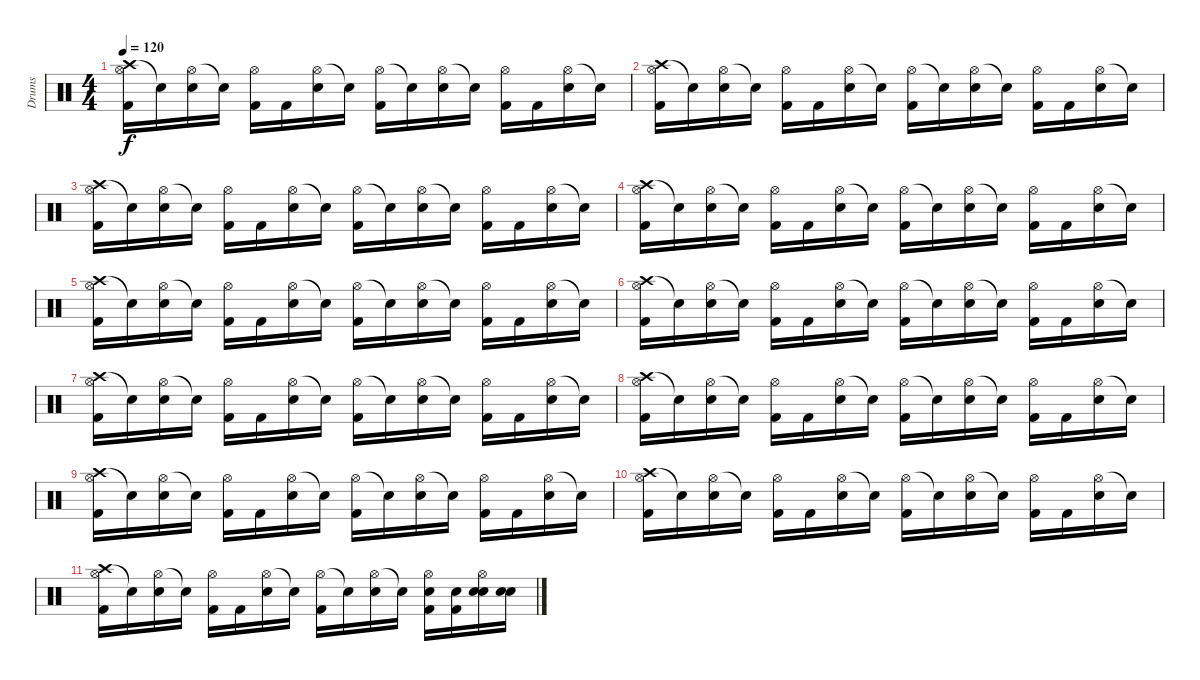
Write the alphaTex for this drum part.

\track ("Drums" "Drums") {instrument percussion}
\staff {score}
\articulation defaults
\ts (4 4)
\tempo 120
\clef neutral
\ks c
("Crash high (hit)" "Hi-Hat (open)" "Kick (hit) 2").16{dy f} "Snare (hit)"{t}.16 ("Hi-Hat (open)" "Electric Snare (hit)").16 "Snare (hit)"{t}.16 ("Hi-Hat (open)" "Kick (hit) 2").16 "Kick (hit) 2".16 ("Hi-Hat (open)" "Electric Snare (hit)").16 "Snare (hit)"{t}.16 ("Hi-Hat (open)" "Kick (hit) 2").16 "Snare (hit)"{t}.16 ("Hi-Hat (open)" "Electric Snare (hit)").16 "Snare (hit)"{t}.16 ("Hi-Hat (open)" "Kick (hit) 2").16 "Kick (hit) 2".16 ("Hi-Hat (open)" "Electric Snare (hit)").16 "Snare (hit)"{t}.16 |
("Crash high (hit)" "Hi-Hat (open)" "Kick (hit) 2").16 "Snare (hit)"{t}.16 ("Hi-Hat (open)" "Electric Snare (hit)").16 "Snare (hit)"{t}.16 ("Hi-Hat (open)" "Kick (hit) 2").16 "Kick (hit) 2".16 ("Hi-Hat (open)" "Electric Snare (hit)").16 "Snare (hit)"{t}.16 ("Hi-Hat (open)" "Kick (hit) 2").16 "Snare (hit)"{t}.16 ("Hi-Hat (open)" "Electric Snare (hit)").16 "Snare (hit)"{t}.16 ("Hi-Hat (open)" "Kick (hit) 2").16 "Kick (hit) 2".16 ("Hi-Hat (open)" "Electric Snare (hit)").16 "Snare (hit)"{t}.16 |
("Crash high (hit)" "Hi-Hat (open)" "Kick (hit) 2").16 "Snare (hit)"{t}.16 ("Hi-Hat (open)" "Electric Snare (hit)").16 "Snare (hit)"{t}.16 ("Hi-Hat (open)" "Kick (hit) 2").16 "Kick (hit) 2".16 ("Hi-Hat (open)" "Electric Snare (hit)").16 "Snare (hit)"{t}.16 ("Hi-Hat (open)" "Kick (hit) 2").16 "Snare (hit)"{t}.16 ("Hi-Hat (open)" "Electric Snare (hit)").16 "Snare (hit)"{t}.16 ("Hi-Hat (open)" "Kick (hit) 2").16 "Kick (hit) 2".16 ("Hi-Hat (open)" "Electric Snare (hit)").16 "Snare (hit)"{t}.16 |
("Crash high (hit)" "Hi-Hat (open)" "Kick (hit) 2").16 "Snare (hit)"{t}.16 ("Hi-Hat (open)" "Electric Snare (hit)").16 "Snare (hit)"{t}.16 ("Hi-Hat (open)" "Kick (hit) 2").16 "Kick (hit) 2".16 ("Hi-Hat (open)" "Electric Snare (hit)").16 "Snare (hit)"{t}.16 ("Hi-Hat (open)" "Kick (hit) 2").16 "Snare (hit)"{t}.16 ("Hi-Hat (open)" "Electric Snare (hit)").16 "Snare (hit)"{t}.16 ("Hi-Hat (open)" "Kick (hit) 2").16 "Kick (hit) 2".16 ("Hi-Hat (open)" "Electric Snare (hit)").16 "Snare (hit)"{t}.16 |
("Crash high (hit)" "Hi-Hat (open)" "Kick (hit) 2").16 "Snare (hit)"{t}.16 ("Hi-Hat (open)" "Electric Snare (hit)").16 "Snare (hit)"{t}.16 ("Hi-Hat (open)" "Kick (hit) 2").16 "Kick (hit) 2".16 ("Hi-Hat (open)" "Electric Snare (hit)").16 "Snare (hit)"{t}.16 ("Hi-Hat (open)" "Kick (hit) 2").16 "Snare (hit)"{t}.16 ("Hi-Hat (open)" "Electric Snare (hit)").16 "Snare (hit)"{t}.16 ("Hi-Hat (open)" "Kick (hit) 2").16 "Kick (hit) 2".16 ("Hi-Hat (open)" "Electric Snare (hit)").16 "Snare (hit)"{t}.16 |
("Crash high (hit)" "Hi-Hat (open)" "Kick (hit) 2").16 "Snare (hit)"{t}.16 ("Hi-Hat (open)" "Electric Snare (hit)").16 "Snare (hit)"{t}.16 ("Hi-Hat (open)" "Kick (hit) 2").16 "Kick (hit) 2".16 ("Hi-Hat (open)" "Electric Snare (hit)").16 "Snare (hit)"{t}.16 ("Hi-Hat (open)" "Kick (hit) 2").16 "Snare (hit)"{t}.16 ("Hi-Hat (open)" "Electric Snare (hit)").16 "Snare (hit)"{t}.16 ("Hi-Hat (open)" "Kick (hit) 2").16 "Kick (hit) 2".16 ("Hi-Hat (open)" "Electric Snare (hit)").16 "Snare (hit)"{t}.16 |
("Crash high (hit)" "Hi-Hat (open)" "Kick (hit) 2").16 "Snare (hit)"{t}.16 ("Hi-Hat (open)" "Electric Snare (hit)").16 "Snare (hit)"{t}.16 ("Hi-Hat (open)" "Kick (hit) 2").16 "Kick (hit) 2".16 ("Hi-Hat (open)" "Electric Snare (hit)").16 "Snare (hit)"{t}.16 ("Hi-Hat (open)" "Kick (hit) 2").16 "Snare (hit)"{t}.16 ("Hi-Hat (open)" "Electric Snare (hit)").16 "Snare (hit)"{t}.16 ("Hi-Hat (open)" "Kick (hit) 2").16 "Kick (hit) 2".16 ("Hi-Hat (open)" "Electric Snare (hit)").16 "Snare (hit)"{t}.16 |
("Crash high (hit)" "Hi-Hat (open)" "Kick (hit) 2").16{volume 10} "Snare (hit)"{t}.16 ("Hi-Hat (open)" "Electric Snare (hit)").16 "Snare (hit)"{t}.16 ("Hi-Hat (open)" "Kick (hit) 2").16 "Kick (hit) 2".16 ("Hi-Hat (open)" "Electric Snare (hit)").16 "Snare (hit)"{t}.16 ("Hi-Hat (open)" "Kick (hit) 2").16 "Snare (hit)"{t}.16 ("Hi-Hat (open)" "Electric Snare (hit)").16 "Snare (hit)"{t}.16 ("Hi-Hat (open)" "Kick (hit) 2").16 "Kick (hit) 2".16 ("Hi-Hat (open)" "Electric Snare (hit)").16 "Snare (hit)"{t}.16 |
("Crash high (hit)" "Hi-Hat (open)" "Kick (hit) 2").16{volume 6} "Snare (hit)"{t}.16 ("Hi-Hat (open)" "Electric Snare (hit)").16 "Snare (hit)"{t}.16 ("Hi-Hat (open)" "Kick (hit) 2").16 "Kick (hit) 2".16 ("Hi-Hat (open)" "Electric Snare (hit)").16 "Snare (hit)"{t}.16 ("Hi-Hat (open)" "Kick (hit) 2").16 "Snare (hit)"{t}.16 ("Hi-Hat (open)" "Electric Snare (hit)").16 "Snare (hit)"{t}.16 ("Hi-Hat (open)" "Kick (hit) 2").16 "Kick (hit) 2".16 ("Hi-Hat (open)" "Electric Snare (hit)").16 "Snare (hit)"{t}.16 |
("Crash high (hit)" "Hi-Hat (open)" "Kick (hit) 2").16{volume 3} "Snare (hit)"{t}.16 ("Hi-Hat (open)" "Electric Snare (hit)").16 "Snare (hit)"{t}.16 ("Hi-Hat (open)" "Kick (hit) 2").16 "Kick (hit) 2".16 ("Hi-Hat (open)" "Electric Snare (hit)").16 "Snare (hit)"{t}.16 ("Hi-Hat (open)" "Kick (hit) 2").16 "Snare (hit)"{t}.16 ("Hi-Hat (open)" "Electric Snare (hit)").16 "Snare (hit)"{t}.16 ("Hi-Hat (open)" "Kick (hit) 2").16 "Kick (hit) 2".16 ("Hi-Hat (open)" "Electric Snare (hit)").16 "Snare (hit)"{t}.16 |
("Crash high (hit)" "Hi-Hat (open)" "Kick (hit) 2").16 "Snare (hit)"{t}.16 ("Hi-Hat (open)" "Electric Snare (hit)").16 "Snare (hit)"{t}.16 ("Hi-Hat (open)" "Kick (hit) 2").16 "Kick (hit) 2".16 ("Hi-Hat (open)" "Electric Snare (hit)").16 "Snare (hit)"{t}.16 ("Hi-Hat (open)" "Kick (hit) 2").16 "Snare (hit)"{t}.16 ("Hi-Hat (open)" "Electric Snare (hit)").16 "Snare (hit)"{t}.16 ("Hi-Hat (open)" "Electric Snare (hit)" "Kick (hit) 2").16 ("Electric Snare (hit)" "Kick (hit) 2").16 ("Hi-Hat (open)" "Electric Snare (hit)" "Electric Snare (hit)").16 ("Electric Snare (hit)" "Electric Snare (hit)").16
